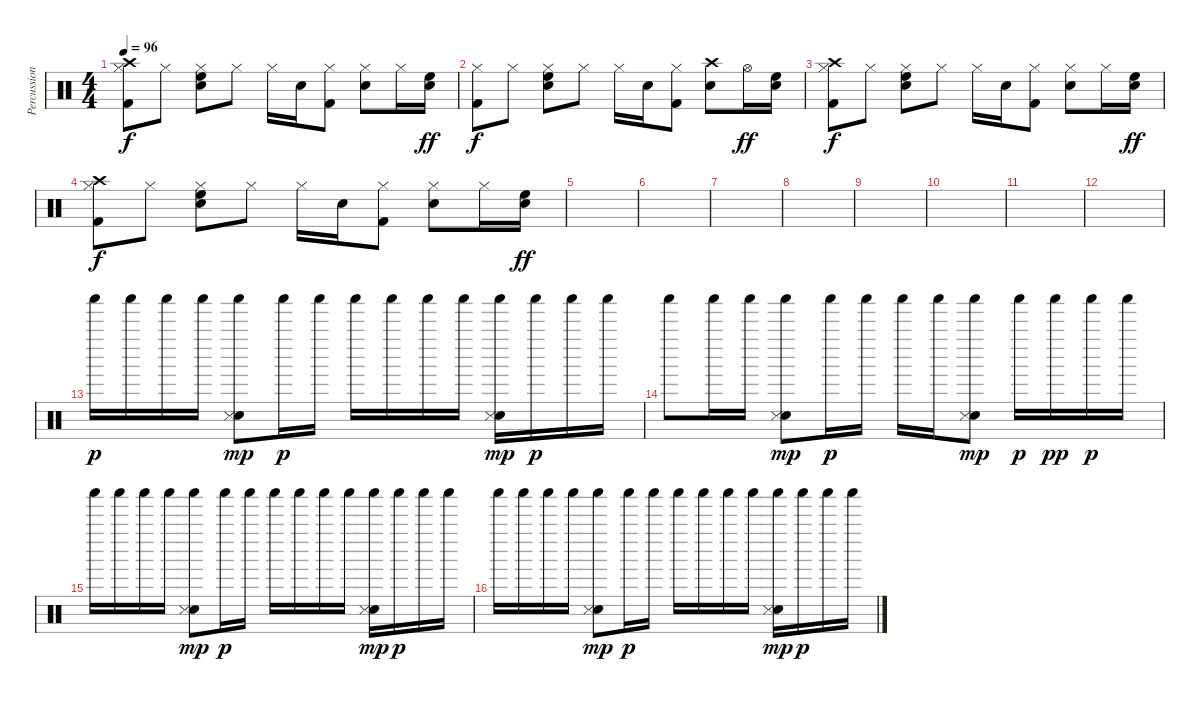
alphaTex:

\track ("Percussion" "Percussion") {instrument percussion}
\staff {score}
\articulation defaults
\ts (4 4)
\tempo 96
\clef neutral
\ks c
("Crash high (hit)" "Hi-Hat (closed)" "Kick (hit) 2").8{dy f} "Hi-Hat (closed)".8 ("Hi-Hat (closed)" "Snare (hit) 2" "High Floor Tom (hit)").8 "Hi-Hat (closed)".8 "Hi-Hat (closed)".16 "Snare (hit) 2".16 ("Hi-Hat (closed)" "Kick (hit) 2").8 ("Hi-Hat (closed)" "Snare (hit) 2").8 "Hi-Hat (closed)".16 ("Snare (hit) 2" "High Floor Tom (hit)").16{dy ff} |
("Hi-Hat (closed)" "Kick (hit) 2").8{dy f} "Hi-Hat (closed)".8 ("Hi-Hat (closed)" "Snare (hit) 2" "High Floor Tom (hit)").8 "Hi-Hat (closed)".8 "Hi-Hat (closed)".16 "Snare (hit) 2".16 ("Hi-Hat (closed)" "Kick (hit) 2").8 ("Crash high (hit)" "Snare (hit) 2").8 "Hi-Hat (open)".16{dy ff} ("Snare (hit) 2" "High Floor Tom (hit)").16 |
("Crash high (hit)" "Hi-Hat (closed)" "Kick (hit) 2").8{dy f} "Hi-Hat (closed)".8 ("Hi-Hat (closed)" "Snare (hit) 2" "High Floor Tom (hit)").8 "Hi-Hat (closed)".8 "Hi-Hat (closed)".16 "Snare (hit) 2".16 ("Hi-Hat (closed)" "Kick (hit) 2").8 ("Hi-Hat (closed)" "Snare (hit) 2").8 "Hi-Hat (closed)".16 ("Snare (hit) 2" "High Floor Tom (hit)").16{dy ff} |
("Crash high (hit)" "Hi-Hat (closed)" "Kick (hit) 2").8{dy f} "Hi-Hat (closed)".8 ("Hi-Hat (closed)" "Snare (hit) 2" "High Floor Tom (hit)").8 "Hi-Hat (closed)".8 "Hi-Hat (closed)".16 "Snare (hit) 2".16 ("Hi-Hat (closed)" "Kick (hit) 2").8 ("Hi-Hat (closed)" "Snare (hit) 2").8 "Hi-Hat (closed)".16 ("Snare (hit) 2" "High Floor Tom (hit)").16{dy ff} |
|
|
|
|
|
|
|
|
"Shaker (hit)".16{dy p} "Shaker (hit)".16{volume 13} "Shaker (hit)".16 "Shaker (hit)".16 ("Shaker (hit)" "Hand Clap (hit)" "Snare (side stick) 3").8{dy mp} "Shaker (hit)".16{dy p} "Shaker (hit)".16 "Shaker (hit)".16 "Shaker (hit)".16 "Shaker (hit)".16 "Shaker (hit)".16 ("Shaker (hit)" "Hand Clap (hit)" "Snare (side stick) 3").16{dy mp} "Shaker (hit)".16{dy p} "Shaker (hit)".16 "Shaker (hit)".16 |
"Shaker (hit)".8{volume 13} "Shaker (hit)".16 "Shaker (hit)".16 ("Shaker (hit)" "Hand Clap (hit)" "Snare (side stick) 3").8{dy mp} "Shaker (hit)".16{dy p} "Shaker (hit)".16 "Shaker (hit)".16 "Shaker (hit)".16 ("Shaker (hit)" "Hand Clap (hit)" "Snare (side stick) 3").8{dy mp} "Shaker (hit)".16{dy p} "Shaker (hit)".16{dy pp} "Shaker (hit)".16{dy p} "Shaker (hit)".16 |
"Shaker (hit)".16 "Shaker (hit)".16{volume 13} "Shaker (hit)".16 "Shaker (hit)".16 ("Shaker (hit)" "Hand Clap (hit)" "Snare (side stick) 3").8{dy mp} "Shaker (hit)".16{dy p} "Shaker (hit)".16 "Shaker (hit)".16 "Shaker (hit)".16 "Shaker (hit)".16 "Shaker (hit)".16 ("Shaker (hit)" "Hand Clap (hit)" "Snare (side stick) 3").16{dy mp} "Shaker (hit)".16{dy p} "Shaker (hit)".16 "Shaker (hit)".16 |
"Shaker (hit)".16 "Shaker (hit)".16{volume 13} "Shaker (hit)".16 "Shaker (hit)".16 ("Shaker (hit)" "Hand Clap (hit)" "Snare (side stick) 3").8{dy mp} "Shaker (hit)".16{dy p} "Shaker (hit)".16 "Shaker (hit)".16 "Shaker (hit)".16 "Shaker (hit)".16 "Shaker (hit)".16 ("Shaker (hit)" "Hand Clap (hit)" "Snare (side stick) 3").16{dy mp} "Shaker (hit)".16{dy p} "Shaker (hit)".16 "Shaker (hit)".16
